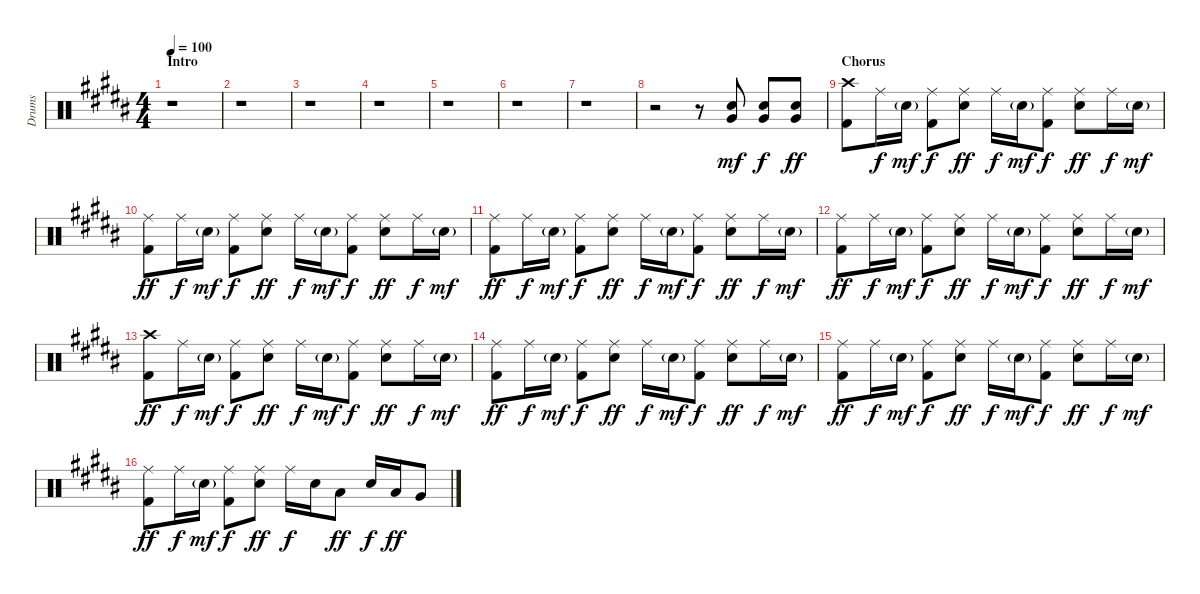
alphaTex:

\track ("Drums" "Drums") {instrument percussion}
\staff {score}
\articulation defaults
\ts (4 4)
\section ("" "Intro")
\tempo 100
\clef neutral
\ks b
r.1{dy mf} |
r.1 |
r.1 |
r.1 |
r.1 |
r.1 |
r.1 |
r.2 r.8 ("Very Low Tom (hit)" "Snare (hit) 2").8 ("Very Low Tom (hit)" "Snare (hit) 2").8{dy f} ("Very Low Tom (hit)" "Snare (hit) 2").8{dy ff} |
\section ("" "Chorus")
("Crash high (hit)" "Kick (hit) 2").8 "Ride (middle)".16{dy f} "Snare (hit) 2"{g}.16{dy mf} ("Ride (middle)" "Kick (hit) 2").8{dy f} ("Ride (middle)" "Snare (hit) 2").8{dy ff} "Ride (middle)".16{dy f} "Snare (hit) 2"{g}.16{dy mf} ("Ride (middle)" "Kick (hit) 2").8{dy f} ("Ride (middle)" "Snare (hit) 2").8{dy ff} "Ride (middle)".16{dy f} "Snare (hit) 2"{g}.16{dy mf} |
("Ride (middle)" "Kick (hit) 2").8{dy ff} "Ride (middle)".16{dy f} "Snare (hit) 2"{g}.16{dy mf} ("Ride (middle)" "Kick (hit) 2").8{dy f} ("Ride (middle)" "Snare (hit) 2").8{dy ff} "Ride (middle)".16{dy f} "Snare (hit) 2"{g}.16{dy mf} ("Ride (middle)" "Kick (hit) 2").8{dy f} ("Ride (middle)" "Snare (hit) 2").8{dy ff} "Ride (middle)".16{dy f} "Snare (hit) 2"{g}.16{dy mf} |
("Ride (middle)" "Kick (hit) 2").8{dy ff} "Ride (middle)".16{dy f} "Snare (hit) 2"{g}.16{dy mf} ("Ride (middle)" "Kick (hit) 2").8{dy f} ("Ride (middle)" "Snare (hit) 2").8{dy ff} "Ride (middle)".16{dy f} "Snare (hit) 2"{g}.16{dy mf} ("Ride (middle)" "Kick (hit) 2").8{dy f} ("Ride (middle)" "Snare (hit) 2").8{dy ff} "Ride (middle)".16{dy f} "Snare (hit) 2"{g}.16{dy mf} |
("Ride (middle)" "Kick (hit) 2").8{dy ff} "Ride (middle)".16{dy f} "Snare (hit) 2"{g}.16{dy mf} ("Ride (middle)" "Kick (hit) 2").8{dy f} ("Ride (middle)" "Snare (hit) 2").8{dy ff} "Ride (middle)".16{dy f} "Snare (hit) 2"{g}.16{dy mf} ("Ride (middle)" "Kick (hit) 2").8{dy f} ("Ride (middle)" "Snare (hit) 2").8{dy ff} "Ride (middle)".16{dy f} "Snare (hit) 2"{g}.16{dy mf} |
("Crash high (hit)" "Kick (hit) 2").8{dy ff} "Ride (middle)".16{dy f} "Snare (hit) 2"{g}.16{dy mf} ("Ride (middle)" "Kick (hit) 2").8{dy f} ("Ride (middle)" "Snare (hit) 2").8{dy ff} "Ride (middle)".16{dy f} "Snare (hit) 2"{g}.16{dy mf} ("Ride (middle)" "Kick (hit) 2").8{dy f} ("Ride (middle)" "Snare (hit) 2").8{dy ff} "Ride (middle)".16{dy f} "Snare (hit) 2"{g}.16{dy mf} |
("Ride (middle)" "Kick (hit) 2").8{dy ff} "Ride (middle)".16{dy f} "Snare (hit) 2"{g}.16{dy mf} ("Ride (middle)" "Kick (hit) 2").8{dy f} ("Ride (middle)" "Snare (hit) 2").8{dy ff} "Ride (middle)".16{dy f} "Snare (hit) 2"{g}.16{dy mf} ("Ride (middle)" "Kick (hit) 2").8{dy f} ("Ride (middle)" "Snare (hit) 2").8{dy ff} "Ride (middle)".16{dy f} "Snare (hit) 2"{g}.16{dy mf} |
("Ride (middle)" "Kick (hit) 2").8{dy ff} "Ride (middle)".16{dy f} "Snare (hit) 2"{g}.16{dy mf} ("Ride (middle)" "Kick (hit) 2").8{dy f} ("Ride (middle)" "Snare (hit) 2").8{dy ff} "Ride (middle)".16{dy f} "Snare (hit) 2"{g}.16{dy mf} ("Ride (middle)" "Kick (hit) 2").8{dy f} ("Ride (middle)" "Snare (hit) 2").8{dy ff} "Ride (middle)".16{dy f} "Snare (hit) 2"{g}.16{dy mf} |
("Ride (middle)" "Kick (hit) 2").8{dy ff} "Ride (middle)".16{dy f} "Snare (hit) 2"{g}.16{dy mf} ("Ride (middle)" "Kick (hit) 2").8{dy f} ("Ride (middle)" "Snare (hit) 2").8{dy ff} "Ride (middle)".16{dy f} "Snare (hit) 2".16 "Low Tom (hit)".8{dy ff} "Snare (hit) 2".16{dy f} "Low Tom (hit)".16{dy ff} "Very Low Tom (hit)".8
